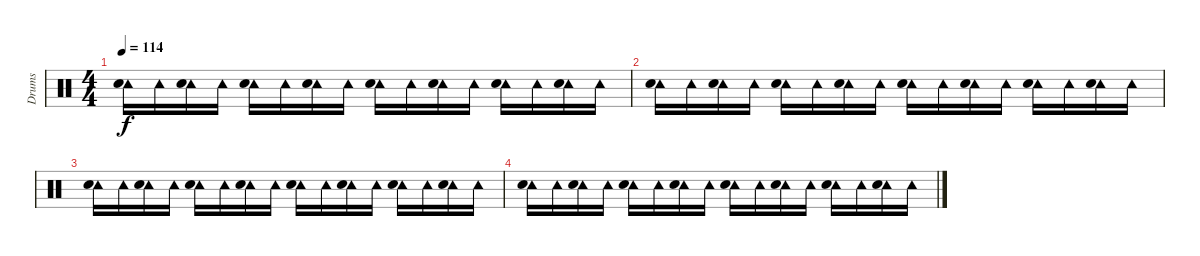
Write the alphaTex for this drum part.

\track ("Drums" "Drums") {instrument percussion}
\staff {score}
\articulation defaults
\ts (4 4)
\tempo 114
\clef neutral
\ks c
("Tambourine (hit)" "Electric Snare (hit)").16{dy f} "Tambourine (hit)".16 ("Tambourine (hit)" "Electric Snare (hit)").16 "Tambourine (hit)".16 ("Tambourine (hit)" "Electric Snare (hit)").16 "Tambourine (hit)".16 ("Tambourine (hit)" "Electric Snare (hit)").16 "Tambourine (hit)".16 ("Tambourine (hit)" "Electric Snare (hit)").16 "Tambourine (hit)".16 ("Tambourine (hit)" "Electric Snare (hit)").16 "Tambourine (hit)".16 ("Tambourine (hit)" "Electric Snare (hit)").16 "Tambourine (hit)".16 ("Tambourine (hit)" "Electric Snare (hit)").16 "Tambourine (hit)".16 |
("Tambourine (hit)" "Electric Snare (hit)").16 "Tambourine (hit)".16 ("Tambourine (hit)" "Electric Snare (hit)").16 "Tambourine (hit)".16 ("Tambourine (hit)" "Electric Snare (hit)").16 "Tambourine (hit)".16 ("Tambourine (hit)" "Electric Snare (hit)").16 "Tambourine (hit)".16 ("Tambourine (hit)" "Electric Snare (hit)").16 "Tambourine (hit)".16 ("Tambourine (hit)" "Electric Snare (hit)").16 "Tambourine (hit)".16 ("Tambourine (hit)" "Electric Snare (hit)").16 "Tambourine (hit)".16 ("Tambourine (hit)" "Electric Snare (hit)").16 "Tambourine (hit)".16 |
("Tambourine (hit)" "Electric Snare (hit)").16 "Tambourine (hit)".16 ("Tambourine (hit)" "Electric Snare (hit)").16 "Tambourine (hit)".16 ("Tambourine (hit)" "Electric Snare (hit)").16 "Tambourine (hit)".16 ("Tambourine (hit)" "Electric Snare (hit)").16 "Tambourine (hit)".16 ("Tambourine (hit)" "Electric Snare (hit)").16 "Tambourine (hit)".16 ("Tambourine (hit)" "Electric Snare (hit)").16 "Tambourine (hit)".16 ("Tambourine (hit)" "Electric Snare (hit)").16 "Tambourine (hit)".16 ("Tambourine (hit)" "Electric Snare (hit)").16 "Tambourine (hit)".16 |
("Tambourine (hit)" "Electric Snare (hit)").16 "Tambourine (hit)".16 ("Tambourine (hit)" "Electric Snare (hit)").16 "Tambourine (hit)".16 ("Tambourine (hit)" "Electric Snare (hit)").16 "Tambourine (hit)".16 ("Tambourine (hit)" "Electric Snare (hit)").16 "Tambourine (hit)".16 ("Tambourine (hit)" "Electric Snare (hit)").16 "Tambourine (hit)".16 ("Tambourine (hit)" "Electric Snare (hit)").16 "Tambourine (hit)".16 ("Tambourine (hit)" "Electric Snare (hit)").16 "Tambourine (hit)".16 ("Tambourine (hit)" "Electric Snare (hit)").16 "Tambourine (hit)".16
